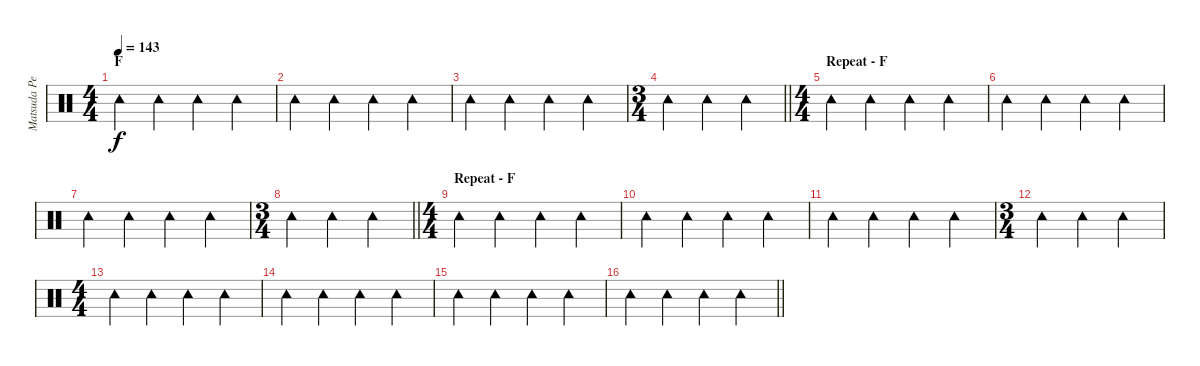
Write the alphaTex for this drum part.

\track ("Matsuda Percussion" "Matsuda Pe") {instrument percussion}
\staff {score}
\articulation defaults
\ts (4 4)
\section ("" "F")
\tempo 143
\clef neutral
\ks c "Tambourine (hit)".4{dy f} "Tambourine (hit)".4 "Tambourine (hit)".4 "Tambourine (hit)".4
|
"Tambourine (hit)".4 "Tambourine (hit)".4 "Tambourine (hit)".4 "Tambourine (hit)".4 |
"Tambourine (hit)".4 "Tambourine (hit)".4 "Tambourine (hit)".4 "Tambourine (hit)".4 |
\ts (3 4)
\barLineRight lightlight "Tambourine (hit)".4 "Tambourine (hit)".4 "Tambourine (hit)".4
|
\ts (4 4)
\section ("" "Repeat - F")
"Tambourine (hit)".4 "Tambourine (hit)".4 "Tambourine (hit)".4 "Tambourine (hit)".4 |
"Tambourine (hit)".4 "Tambourine (hit)".4 "Tambourine (hit)".4 "Tambourine (hit)".4 |
"Tambourine (hit)".4 "Tambourine (hit)".4 "Tambourine (hit)".4 "Tambourine (hit)".4 |
\ts (3 4)
\barLineRight lightlight "Tambourine (hit)".4 "Tambourine (hit)".4 "Tambourine (hit)".4
|
\ts (4 4)
\section ("" "Repeat - F")
"Tambourine (hit)".4 "Tambourine (hit)".4 "Tambourine (hit)".4 "Tambourine (hit)".4 |
"Tambourine (hit)".4 "Tambourine (hit)".4 "Tambourine (hit)".4 "Tambourine (hit)".4 |
"Tambourine (hit)".4 "Tambourine (hit)".4 "Tambourine (hit)".4 "Tambourine (hit)".4 |
\ts (3 4)
"Tambourine (hit)".4 "Tambourine (hit)".4 "Tambourine (hit)".4 |
\ts (4 4)
"Tambourine (hit)".4 "Tambourine (hit)".4 "Tambourine (hit)".4 "Tambourine (hit)".4 |
"Tambourine (hit)".4 "Tambourine (hit)".4 "Tambourine (hit)".4 "Tambourine (hit)".4 |
"Tambourine (hit)".4 "Tambourine (hit)".4 "Tambourine (hit)".4 "Tambourine (hit)".4 |
\barLineRight lightlight "Tambourine (hit)".4 "Tambourine (hit)".4 "Tambourine (hit)".4 "Tambourine (hit)".4
